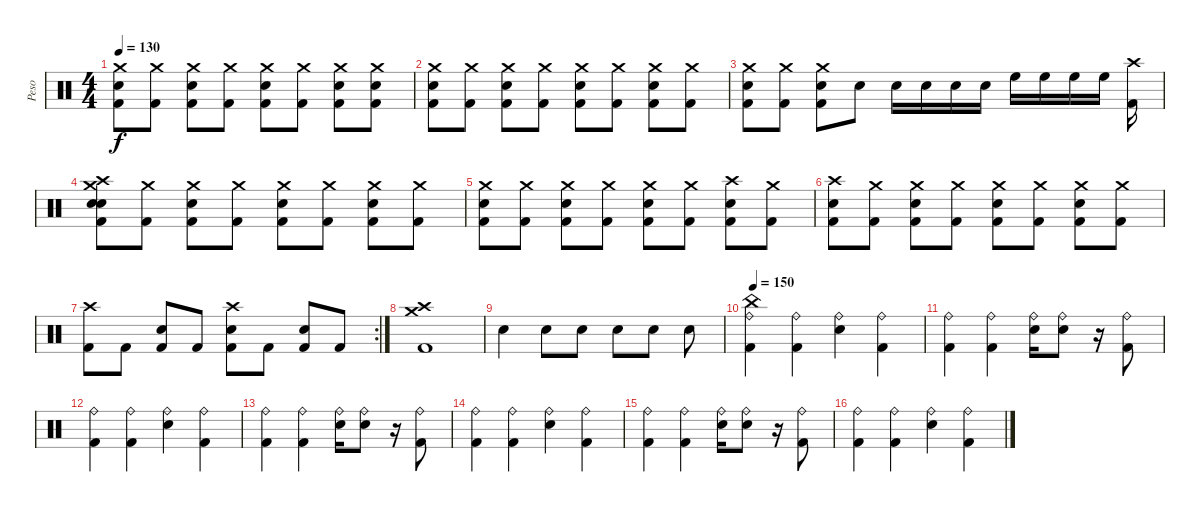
\track ("Peso" "Peso") {instrument percussion}
\staff {score}
\articulation defaults
\ts (4 4)
\tempo 130
\clef neutral
\ks c
("Crash medium (hit)" "Snare (hit) 2" "Kick (hit) 2").8{dy f} ("Crash medium (hit)" "Kick (hit) 2").8 ("Crash medium (hit)" "Snare (hit) 2" "Kick (hit) 2").8 ("Crash medium (hit)" "Kick (hit) 2").8 ("Crash medium (hit)" "Snare (hit) 2" "Kick (hit) 2").8 ("Crash medium (hit)" "Kick (hit) 2").8 ("Crash medium (hit)" "Snare (hit) 2" "Kick (hit) 2").8 ("Crash medium (hit)" "Snare (hit) 2" "Kick (hit) 2").8 |
("Crash medium (hit)" "Snare (hit) 2" "Kick (hit) 2").8 ("Crash medium (hit)" "Kick (hit) 2").8 ("Crash medium (hit)" "Snare (hit) 2" "Kick (hit) 2").8 ("Crash medium (hit)" "Kick (hit) 2").8 ("Crash medium (hit)" "Snare (hit) 2" "Kick (hit) 2").8 ("Crash medium (hit)" "Kick (hit) 2").8 ("Crash medium (hit)" "Snare (hit) 2" "Kick (hit) 2").8 ("Crash medium (hit)" "Kick (hit) 2").8 |
("Crash medium (hit)" "Snare (hit) 2" "Kick (hit) 2").8 ("Crash medium (hit)" "Kick (hit) 2").8 ("Crash medium (hit)" "Snare (hit) 2" "Kick (hit) 2").8 "Snare (hit) 2".8 "Snare (hit) 2".16 "Snare (hit) 2".16 "Snare (hit) 2".16 "Snare (hit) 2".16 "High Floor Tom (hit)".16 "High Floor Tom (hit)".16 "High Floor Tom (hit)".16 "High Floor Tom (hit)".16 ("Crash high (hit)" "Kick (hit) 2").16 |
("Crash high (hit)" "Crash medium (hit)" "Snare (hit) 2" "Kick (hit) 2" "Snare (hit)").8 ("Crash medium (hit)" "Kick (hit) 2").8 ("Crash medium (hit)" "Snare (hit) 2" "Kick (hit) 2").8 ("Crash medium (hit)" "Kick (hit) 2").8 ("Crash medium (hit)" "Snare (hit) 2" "Kick (hit) 2").8 ("Crash medium (hit)" "Kick (hit) 2").8 ("Crash medium (hit)" "Snare (hit) 2" "Kick (hit) 2").8 ("Crash medium (hit)" "Kick (hit) 2").8 |
("Crash medium (hit)" "Snare (hit) 2" "Kick (hit) 2").8 ("Crash medium (hit)" "Kick (hit) 2").8 ("Crash medium (hit)" "Snare (hit) 2" "Kick (hit) 2").8 ("Crash medium (hit)" "Kick (hit) 2").8 ("Crash medium (hit)" "Snare (hit) 2" "Kick (hit) 2").8 ("Crash medium (hit)" "Kick (hit) 2").8 ("Crash high (hit)" "Snare (hit) 2" "Kick (hit) 2").8 ("Crash medium (hit)" "Kick (hit) 2").8 |
("Crash high (hit)" "Snare (hit) 2" "Kick (hit) 2").8 ("Crash medium (hit)" "Kick (hit) 2").8 ("Crash medium (hit)" "Snare (hit) 2" "Kick (hit) 2").8 ("Crash medium (hit)" "Kick (hit) 2").8 ("Crash medium (hit)" "Snare (hit) 2" "Kick (hit) 2").8 ("Crash medium (hit)" "Kick (hit) 2").8 ("Crash medium (hit)" "Snare (hit) 2" "Kick (hit) 2").8 ("Crash medium (hit)" "Kick (hit) 2").8 |
\rc 2
("Crash high (hit)" "Kick (hit) 2").8 "Kick (hit) 2".8 ("Snare (hit) 2" "Kick (hit) 2").8 "Kick (hit) 2".8 ("Crash high (hit)" "Snare (hit) 2" "Kick (hit) 2").8 "Kick (hit) 2".8 ("Snare (hit) 2" "Kick (hit) 2").8 "Kick (hit) 2".8 |
("Crash high (hit)" "Crash medium (hit)" "Kick (hit) 2").1 |
"Snare (hit)"{x}.4 "Snare (hit) 2".8 "Snare (hit)"{x}.8 "Snare (hit)"{x}.8 "Snare (hit) 2".8 "Snare (hit) 2"{x}.8 |
\tempo 150
("China (hit)" "Ride (bell)" "Kick (hit) 2").4 ("Ride (bell)" "Kick (hit) 2").4 ("Ride (bell)" "Snare (hit) 2").4 ("Ride (bell)" "Kick (hit) 2").4 |
("Ride (bell)" "Kick (hit) 2").4 ("Ride (bell)" "Kick (hit) 2").4 ("Ride (bell)" "Snare (hit) 2").16 ("Ride (bell)" "Snare (hit) 2").8 r.16 ("Ride (bell)" "Kick (hit) 2").8 |
("Ride (bell)" "Kick (hit) 2").4 ("Ride (bell)" "Kick (hit) 2").4 ("Ride (bell)" "Snare (hit) 2").4 ("Ride (bell)" "Kick (hit) 2").4 |
("Ride (bell)" "Kick (hit) 2").4 ("Ride (bell)" "Kick (hit) 2").4 ("Ride (bell)" "Snare (hit) 2").16 ("Ride (bell)" "Snare (hit) 2").8 r.16 ("Ride (bell)" "Kick (hit) 2").8 |
("Ride (bell)" "Kick (hit) 2").4 ("Ride (bell)" "Kick (hit) 2").4 ("Ride (bell)" "Snare (hit) 2").4 ("Ride (bell)" "Kick (hit) 2").4 |
("Ride (bell)" "Kick (hit) 2").4 ("Ride (bell)" "Kick (hit) 2").4 ("Ride (bell)" "Snare (hit) 2").16 ("Ride (bell)" "Snare (hit) 2").8 r.16 ("Ride (bell)" "Kick (hit) 2").8 |
("Ride (bell)" "Kick (hit) 2").4 ("Ride (bell)" "Kick (hit) 2").4 ("Ride (bell)" "Snare (hit) 2").4 ("Ride (bell)" "Kick (hit) 2").4
